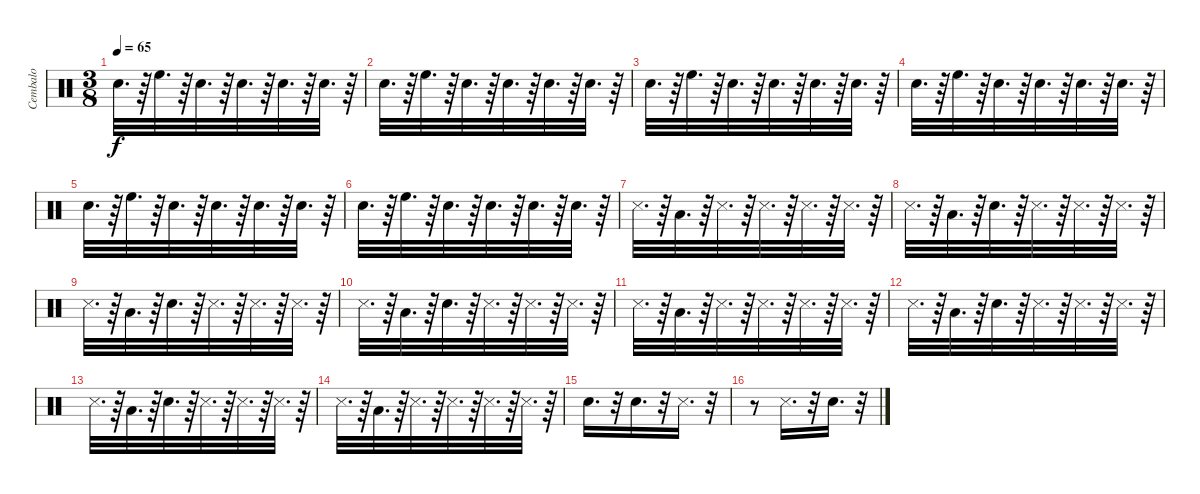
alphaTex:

\track ("Cembalo" "Cembalo") {instrument percussion}
\staff {score}
\articulation defaults
\ts (3 8)
\tempo 65
\clef neutral
\ks c "Snare (hit) 2".32{d dy f}
r.64 "High Floor Tom (hit)".32{d} r.64 "Snare (hit) 2".32{d} r.64 "Snare (hit)".32{d} r.64 "Snare (hit)".32{d} r.64 "Snare (hit)".32{d} r.64 |
"Snare (hit) 2".32{d} r.64 "High Floor Tom (hit)".32{d} r.64 "Snare (hit) 2".32{d} r.64 "Snare (hit)".32{d} r.64 "Snare (hit)".32{d} r.64 "Snare (hit)".32{d} r.64 |
"Snare (hit) 2".32{d} r.64 "High Floor Tom (hit)".32{d} r.64 "Snare (hit) 2".32{d} r.64 "Snare (hit)".32{d} r.64 "Snare (hit)".32{d} r.64 "Snare (hit)".32{d} r.64 |
"Snare (hit) 2".32{d} r.64 "High Floor Tom (hit)".32{d} r.64 "Snare (hit) 2".32{d} r.64 "Snare (hit)".32{d} r.64 "Snare (hit)".32{d} r.64 "Snare (hit)".32{d} r.64 |
"Snare (hit) 2".32{d} r.64 "High Floor Tom (hit)".32{d} r.64 "Snare (hit) 2".32{d} r.64 "Snare (hit)".32{d} r.64 "Snare (hit)".32{d} r.64 "Snare (hit)".32{d} r.64 |
"Snare (hit) 2".32{d} r.64 "High Floor Tom (hit)".32{d} r.64 "Snare (hit) 2".32{d} r.64 "Snare (hit)".32{d} r.64 "Snare (hit)".32{d} r.64 "Snare (hit)".32{d} r.64 |
"Metronome (hit)".32{d} r.64 "Low Tom (hit)".32{d} r.64 "Snare (side stick) 3".32{d} r.64 "Metronome (hit)".32{d} r.64 "Metronome (hit)".32{d} r.64 "Metronome (hit)".32{d} r.64 |
"Metronome (hit)".32{d} r.64 "Low Tom (hit)".32{d} r.64 "Snare (hit) 2".32{d} r.64 "Metronome (hit)".32{d} r.64 "Metronome (hit)".32{d} r.64 "Metronome (hit)".32{d} r.64 |
"Metronome (hit)".32{d} r.64 "Low Tom (hit)".32{d} r.64 "Electric Snare (hit)".32{d} r.64 "Metronome (hit)".32{d} r.64 "Metronome (hit)".32{d} r.64 "Metronome (hit)".32{d} r.64 |
"Metronome (hit)".32{d} r.64 "Low Tom (hit)".32{d} r.64 "Snare (hit) 2".32{d} r.64 "Metronome (hit)".32{d} r.64 "Metronome (hit)".32{d} r.64 "Metronome (hit)".32{d} r.64 |
"Metronome (hit)".32{d} r.64 "Low Tom (hit)".32{d} r.64 "Snare (side stick) 3".32{d} r.64 "Metronome (hit)".32{d} r.64 "Metronome (hit)".32{d} r.64 "Metronome (hit)".32{d} r.64 |
"Metronome (hit)".32{d} r.64 "Low Tom (hit)".32{d} r.64 "Snare (hit) 2".32{d} r.64 "Metronome (hit)".32{d} r.64 "Metronome (hit)".32{d} r.64 "Metronome (hit)".32{d} r.64 |
"Metronome (hit)".32{d} r.64 "Low Tom (hit)".32{d} r.64 "Snare (hit) 2".32{d} r.64 "Metronome (hit)".32{d} r.64 "Metronome (hit)".32{d} r.64 "Metronome (hit)".32{d} r.64 |
"Metronome (hit)".32{d} r.64 "Low Tom (hit)".32{d} r.64 "Snare (side stick) 3".32{d} r.64 "Metronome (hit)".32{d} r.64 "Metronome (hit)".32{d} r.64 "Metronome (hit)".32{d} r.64 |
"Snare (hit)".16{d} r.32 "Snare (hit) 2".16{d} r.32 "Metronome (hit)".16{d} r.32 |
r.8 "Metronome (hit)".16{d} r.32 "Snare (hit) 2".16{d} r.32
